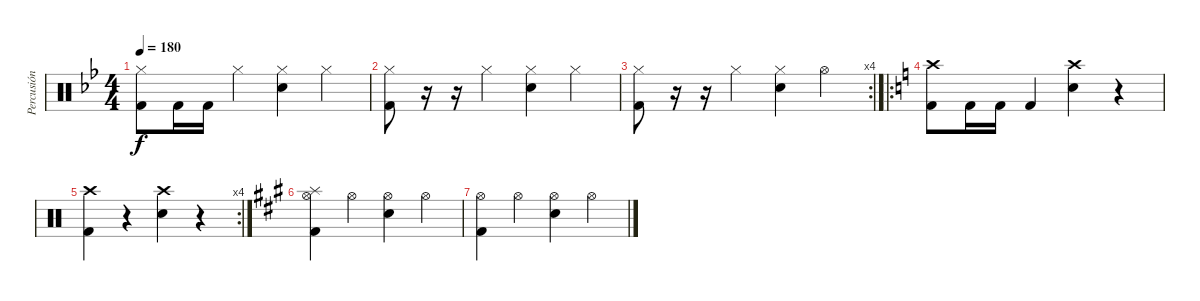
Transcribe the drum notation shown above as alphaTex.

\track ("Percusión" "Percusión") {instrument percussion}
\staff {score}
\articulation defaults
\ts (4 4)
\tempo 180
\clef neutral
\ks bb
("Hi-Hat (closed)" "Kick (hit) 2").8{dy f} "Kick (hit) 2".16 "Kick (hit) 2".16 "Hi-Hat (closed)".4 ("Hi-Hat (closed)" "Electric Snare (hit)").4 "Hi-Hat (closed)".4 |
("Hi-Hat (closed)" "Kick (hit) 2").8 r.16 r.16 "Hi-Hat (closed)".4 ("Hi-Hat (closed)" "Electric Snare (hit)").4 "Hi-Hat (closed)".4 |
\rc 4
("Hi-Hat (closed)" "Kick (hit) 2").8 r.16 r.16 "Hi-Hat (closed)".4 ("Hi-Hat (closed)" "Electric Snare (hit)").4 "Hi-Hat (open)".4 |
\ro
\ks c
("Crash high (hit)" "Kick (hit) 2").8 "Kick (hit) 2".16 "Kick (hit) 2".16 "Kick (hit) 2".4 ("Crash high (hit)" "Electric Snare (hit)").4 r.4 |
\rc 4
("Crash high (hit)" "Kick (hit) 2").4 r.4 ("Crash high (hit)" "Electric Snare (hit)").4 r.4 |
\ks f#minor
("Splash (hit)" "Hi-Hat (open)" "Kick (hit) 2").4 "Hi-Hat (open)".4 ("Hi-Hat (open)" "Electric Snare (hit)").4 "Hi-Hat (open)".4 |
("Hi-Hat (open)" "Kick (hit) 2").4 "Hi-Hat (open)".4 ("Hi-Hat (open)" "Electric Snare (hit)").4 "Hi-Hat (open)".4
